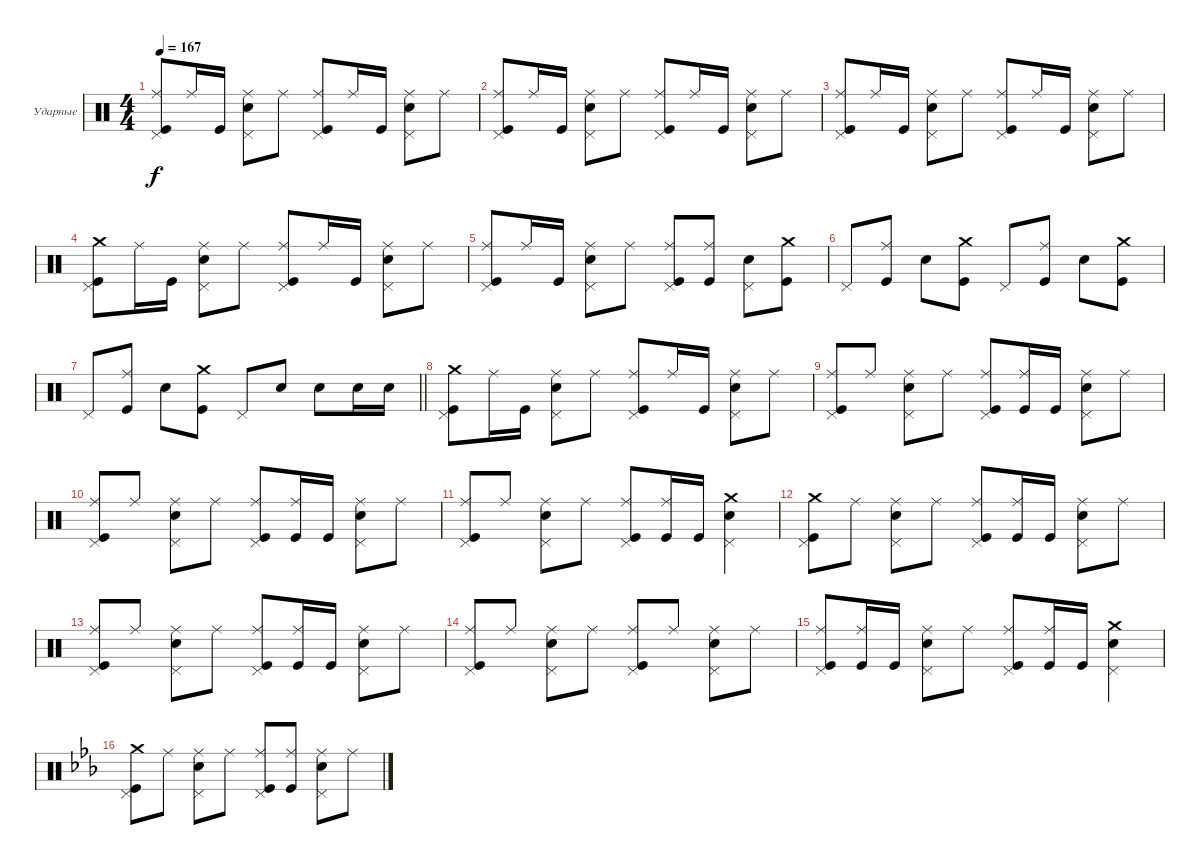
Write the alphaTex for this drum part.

\bracketExtendMode groupsimilarinstruments
\firstSystemTrackNameOrientation horizontal
\otherSystemsTrackNameOrientation horizontal
\track ("Максим Удалов" "Ударные") {instrument percussion}
\staff {score}
\articulation defaults
\ts (4 4)
\tempo 167
\clef neutral
\ks aminor
("Kick (hit)" "Ride (middle)" "Pedal Hi-Hat (hit)").8{dy f} "Ride (middle)".16 "Kick (hit)".16 ("Snare (hit) 2" "Ride (middle)" "Pedal Hi-Hat (hit)").8 "Ride (middle)".8 ("Ride (middle)" "Kick (hit)" "Pedal Hi-Hat (hit)").8 "Ride (middle)".16 "Kick (hit)".16 ("Snare (hit) 2" "Ride (middle)" "Pedal Hi-Hat (hit)").8 "Ride (middle)".8 |
("Kick (hit)" "Ride (middle)" "Pedal Hi-Hat (hit)").8 "Ride (middle)".16 "Kick (hit)".16 ("Snare (hit) 2" "Ride (middle)" "Pedal Hi-Hat (hit)").8 "Ride (middle)".8 ("Ride (middle)" "Kick (hit)" "Pedal Hi-Hat (hit)").8 "Ride (middle)".16 "Kick (hit)".16 ("Snare (hit) 2" "Ride (middle)" "Pedal Hi-Hat (hit)").8 "Ride (middle)".8 |
("Kick (hit)" "Ride (middle)" "Pedal Hi-Hat (hit)").8 "Ride (middle)".16 "Kick (hit)".16 ("Snare (hit) 2" "Ride (middle)" "Pedal Hi-Hat (hit)").8 "Ride (middle)".8 ("Ride (middle)" "Kick (hit)" "Pedal Hi-Hat (hit)").8 "Ride (middle)".16 "Kick (hit)".16 ("Snare (hit) 2" "Ride (middle)" "Pedal Hi-Hat (hit)").8 "Ride (middle)".8 |
("Kick (hit)" "Crash medium (hit)" "Pedal Hi-Hat (hit)").8 "Ride (middle)".16 "Kick (hit)".16 ("Snare (hit) 2" "Ride (middle)" "Pedal Hi-Hat (hit)").8 "Ride (middle)".8 ("Ride (middle)" "Kick (hit)" "Pedal Hi-Hat (hit)").8 "Ride (middle)".16 "Kick (hit)".16 ("Snare (hit) 2" "Ride (middle)" "Pedal Hi-Hat (hit)").8 "Ride (middle)".8 |
("Kick (hit)" "Ride (middle)" "Pedal Hi-Hat (hit)").8 "Ride (middle)".16 "Kick (hit)".16 ("Snare (hit) 2" "Ride (middle)" "Pedal Hi-Hat (hit)").8 "Ride (middle)".8 ("Ride (middle)" "Kick (hit)" "Pedal Hi-Hat (hit)").8 ("Ride (middle)" "Kick (hit)").8 ("Snare (hit) 2" "Pedal Hi-Hat (hit)").8 ("Kick (hit)" "Crash medium (hit)").8 |
"Pedal Hi-Hat (hit)".8 ("Kick (hit)" "Ride (middle)").8 "Snare (hit) 2".8 ("Kick (hit)" "Crash medium (hit)").8 "Pedal Hi-Hat (hit)".8 ("Kick (hit)" "Ride (middle)").8 "Snare (hit) 2".8 ("Kick (hit)" "Crash medium (hit)").8 |
\barLineRight lightlight "Pedal Hi-Hat (hit)".8
("Kick (hit)" "Ride (middle)").8 "Snare (hit) 2".8 ("Kick (hit)" "Crash medium (hit)").8 "Pedal Hi-Hat (hit)".8 "Snare (hit) 2".8 "Snare (hit) 2".8 "Snare (hit) 2".16 "Snare (hit) 2".16 |
("Kick (hit)" "Crash medium (hit)" "Pedal Hi-Hat (hit)").8 "Ride (middle)".16 "Kick (hit)".16 ("Snare (hit) 2" "Ride (middle)" "Pedal Hi-Hat (hit)").8 "Ride (middle)".8 ("Ride (middle)" "Kick (hit)" "Pedal Hi-Hat (hit)").8 "Ride (middle)".16 "Kick (hit)".16 ("Snare (hit) 2" "Ride (middle)" "Pedal Hi-Hat (hit)").8 "Ride (middle)".8 |
("Kick (hit)" "Ride (middle)" "Pedal Hi-Hat (hit)").8 "Ride (middle)".8 ("Snare (hit) 2" "Ride (middle)" "Pedal Hi-Hat (hit)").8 "Ride (middle)".8 ("Ride (middle)" "Kick (hit)" "Pedal Hi-Hat (hit)").8 ("Ride (middle)" "Kick (hit)").16 "Kick (hit)".16 ("Snare (hit) 2" "Ride (middle)" "Pedal Hi-Hat (hit)").8 "Ride (middle)".8 |
("Kick (hit)" "Ride (middle)" "Pedal Hi-Hat (hit)").8 "Ride (middle)".8 ("Snare (hit) 2" "Ride (middle)" "Pedal Hi-Hat (hit)").8 "Ride (middle)".8 ("Ride (middle)" "Kick (hit)" "Pedal Hi-Hat (hit)").8 ("Ride (middle)" "Kick (hit)").16 "Kick (hit)".16 ("Snare (hit) 2" "Ride (middle)" "Pedal Hi-Hat (hit)").8 "Ride (middle)".8 |
("Kick (hit)" "Ride (middle)" "Pedal Hi-Hat (hit)").8 "Ride (middle)".8 ("Snare (hit) 2" "Ride (middle)" "Pedal Hi-Hat (hit)").8 "Ride (middle)".8 ("Ride (middle)" "Kick (hit)" "Pedal Hi-Hat (hit)").8 ("Ride (middle)" "Kick (hit)").16 "Kick (hit)".16 ("Snare (hit) 2" "Crash medium (hit)" "Pedal Hi-Hat (hit)").4 |
("Kick (hit)" "Crash medium (hit)" "Pedal Hi-Hat (hit)").8 "Ride (middle)".8 ("Snare (hit) 2" "Ride (middle)" "Pedal Hi-Hat (hit)").8 "Ride (middle)".8 ("Ride (middle)" "Kick (hit)" "Pedal Hi-Hat (hit)").8 ("Ride (middle)" "Kick (hit)").16 "Kick (hit)".16 ("Snare (hit) 2" "Ride (middle)" "Pedal Hi-Hat (hit)").8 "Ride (middle)".8 |
("Kick (hit)" "Ride (middle)" "Pedal Hi-Hat (hit)").8 "Ride (middle)".8 ("Snare (hit) 2" "Ride (middle)" "Pedal Hi-Hat (hit)").8 "Ride (middle)".8 ("Ride (middle)" "Kick (hit)" "Pedal Hi-Hat (hit)").8 ("Ride (middle)" "Kick (hit)").16 "Kick (hit)".16 ("Snare (hit) 2" "Ride (middle)" "Pedal Hi-Hat (hit)").8 "Ride (middle)".8 |
("Kick (hit)" "Ride (middle)" "Pedal Hi-Hat (hit)").8 "Ride (middle)".8 ("Snare (hit) 2" "Ride (middle)" "Pedal Hi-Hat (hit)").8 "Ride (middle)".8 ("Ride (middle)" "Kick (hit)" "Pedal Hi-Hat (hit)").8 "Ride (middle)".8 ("Snare (hit) 2" "Ride (middle)" "Pedal Hi-Hat (hit)").8 "Ride (middle)".8 |
("Kick (hit)" "Ride (middle)" "Pedal Hi-Hat (hit)").8 ("Ride (middle)" "Kick (hit)").16 "Kick (hit)".16 ("Snare (hit) 2" "Ride (middle)" "Pedal Hi-Hat (hit)").8 "Ride (middle)".8 ("Ride (middle)" "Kick (hit)" "Pedal Hi-Hat (hit)").8 ("Ride (middle)" "Kick (hit)").16 "Kick (hit)".16 ("Snare (hit) 2" "Crash medium (hit)" "Pedal Hi-Hat (hit)").4 |
\ks cminor
("Kick (hit)" "Crash medium (hit)" "Pedal Hi-Hat (hit)").8 "Ride (middle)".8 ("Ride (middle)" "Snare (hit) 2" "Pedal Hi-Hat (hit)").8 "Ride (middle)".8 ("Ride (middle)" "Kick (hit)" "Pedal Hi-Hat (hit)").8 ("Ride (middle)" "Kick (hit)").8 ("Ride (middle)" "Snare (hit) 2" "Pedal Hi-Hat (hit)").8 "Ride (middle)".8
